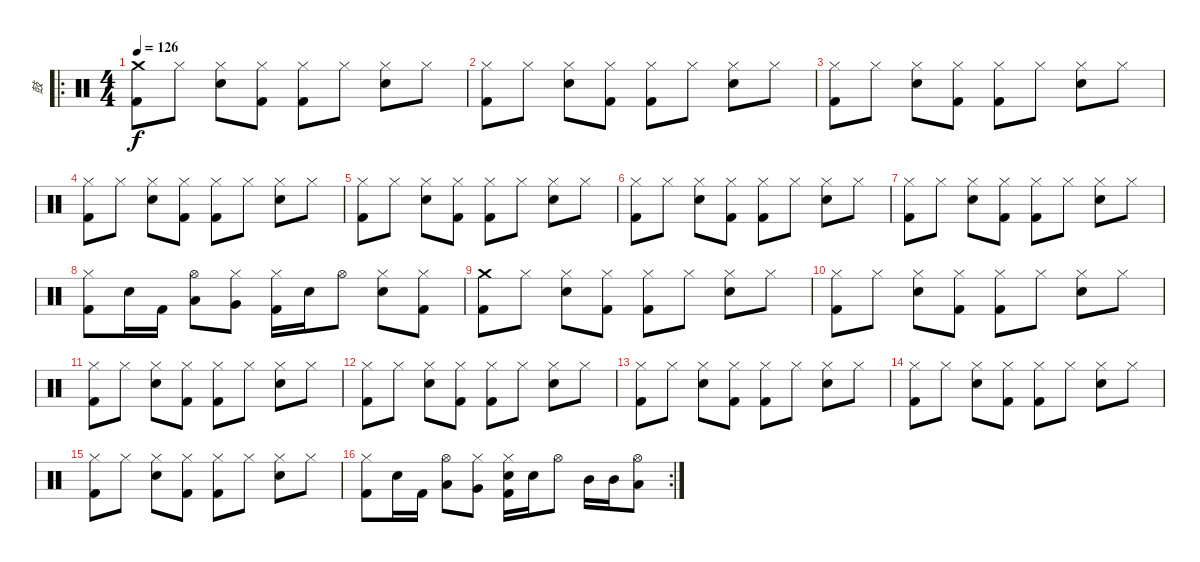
\track ("鼓" "鼓") {instrument percussion}
\staff {score}
\articulation defaults
\ro
\ts (4 4)
\tempo 126
\clef neutral
\ks c
("Crash medium (hit)" "Kick (hit) 2").8{dy f} "Hi-Hat (closed)".8 ("Hi-Hat (closed)" "Electric Snare (hit)").8 ("Hi-Hat (closed)" "Kick (hit) 2").8 ("Hi-Hat (closed)" "Kick (hit) 2").8 "Hi-Hat (closed)".8 ("Hi-Hat (closed)" "Electric Snare (hit)").8 "Hi-Hat (closed)".8 |
("Hi-Hat (closed)" "Kick (hit) 2").8 "Hi-Hat (closed)".8 ("Hi-Hat (closed)" "Electric Snare (hit)").8 ("Hi-Hat (closed)" "Kick (hit) 2").8 ("Hi-Hat (closed)" "Kick (hit) 2").8 "Hi-Hat (closed)".8 ("Hi-Hat (closed)" "Electric Snare (hit)").8 "Hi-Hat (closed)".8 |
("Hi-Hat (closed)" "Kick (hit) 2").8 "Hi-Hat (closed)".8 ("Hi-Hat (closed)" "Electric Snare (hit)").8 ("Hi-Hat (closed)" "Kick (hit) 2").8 ("Hi-Hat (closed)" "Kick (hit) 2").8 "Hi-Hat (closed)".8 ("Hi-Hat (closed)" "Electric Snare (hit)").8 "Hi-Hat (closed)".8 |
("Hi-Hat (closed)" "Kick (hit) 2").8 "Hi-Hat (closed)".8 ("Hi-Hat (closed)" "Electric Snare (hit)").8 ("Hi-Hat (closed)" "Kick (hit) 2").8 ("Hi-Hat (closed)" "Kick (hit) 2").8 "Hi-Hat (closed)".8 ("Hi-Hat (closed)" "Electric Snare (hit)").8 "Hi-Hat (closed)".8 |
("Hi-Hat (closed)" "Kick (hit) 2").8 "Hi-Hat (closed)".8 ("Hi-Hat (closed)" "Electric Snare (hit)").8 ("Hi-Hat (closed)" "Kick (hit) 2").8 ("Hi-Hat (closed)" "Kick (hit) 2").8 "Hi-Hat (closed)".8 ("Hi-Hat (closed)" "Electric Snare (hit)").8 "Hi-Hat (closed)".8 |
("Hi-Hat (closed)" "Kick (hit) 2").8 "Hi-Hat (closed)".8 ("Hi-Hat (closed)" "Electric Snare (hit)").8 ("Hi-Hat (closed)" "Kick (hit) 2").8 ("Hi-Hat (closed)" "Kick (hit) 2").8 "Hi-Hat (closed)".8 ("Hi-Hat (closed)" "Electric Snare (hit)").8 "Hi-Hat (closed)".8 |
("Hi-Hat (closed)" "Kick (hit) 2").8 "Hi-Hat (closed)".8 ("Hi-Hat (closed)" "Electric Snare (hit)").8 ("Hi-Hat (closed)" "Kick (hit) 2").8 ("Hi-Hat (closed)" "Kick (hit) 2").8 "Hi-Hat (closed)".8 ("Hi-Hat (closed)" "Electric Snare (hit)").8 "Hi-Hat (closed)".8 |
("Hi-Hat (closed)" "Kick (hit) 2").8 "Electric Snare (hit)".16 "Kick (hit) 2".16 ("Hi-Hat (open)" "Low Tom (hit)").8 ("Hi-Hat (closed)" "Very Low Tom (hit)").8 ("Hi-Hat (closed)" "Kick (hit) 2").16 "Electric Snare (hit)".16 "Hi-Hat (open)".8 ("Hi-Hat (closed)" "Electric Snare (hit)").8 ("Hi-Hat (closed)" "Kick (hit) 2").8 |
("Crash medium (hit)" "Kick (hit) 2").8 "Hi-Hat (closed)".8 ("Hi-Hat (closed)" "Electric Snare (hit)").8 ("Hi-Hat (closed)" "Kick (hit) 2").8 ("Hi-Hat (closed)" "Kick (hit) 2").8 "Hi-Hat (closed)".8 ("Hi-Hat (closed)" "Electric Snare (hit)").8 "Hi-Hat (closed)".8 |
("Hi-Hat (closed)" "Kick (hit) 2").8 "Hi-Hat (closed)".8 ("Hi-Hat (closed)" "Electric Snare (hit)").8 ("Hi-Hat (closed)" "Kick (hit) 2").8 ("Hi-Hat (closed)" "Kick (hit) 2").8 "Hi-Hat (closed)".8 ("Hi-Hat (closed)" "Electric Snare (hit)").8 "Hi-Hat (closed)".8 |
("Hi-Hat (closed)" "Kick (hit) 2").8 "Hi-Hat (closed)".8 ("Hi-Hat (closed)" "Electric Snare (hit)").8 ("Hi-Hat (closed)" "Kick (hit) 2").8 ("Hi-Hat (closed)" "Kick (hit) 2").8 "Hi-Hat (closed)".8 ("Hi-Hat (closed)" "Electric Snare (hit)").8 "Hi-Hat (closed)".8 |
("Hi-Hat (closed)" "Kick (hit) 2").8 "Hi-Hat (closed)".8 ("Hi-Hat (closed)" "Electric Snare (hit)").8 ("Hi-Hat (closed)" "Kick (hit) 2").8 ("Hi-Hat (closed)" "Kick (hit) 2").8 "Hi-Hat (closed)".8 ("Hi-Hat (closed)" "Electric Snare (hit)").8 "Hi-Hat (closed)".8 |
("Hi-Hat (closed)" "Kick (hit) 2").8 "Hi-Hat (closed)".8 ("Hi-Hat (closed)" "Electric Snare (hit)").8 ("Hi-Hat (closed)" "Kick (hit) 2").8 ("Hi-Hat (closed)" "Kick (hit) 2").8 "Hi-Hat (closed)".8 ("Hi-Hat (closed)" "Electric Snare (hit)").8 "Hi-Hat (closed)".8 |
("Hi-Hat (closed)" "Kick (hit) 2").8 "Hi-Hat (closed)".8 ("Hi-Hat (closed)" "Electric Snare (hit)").8 ("Hi-Hat (closed)" "Kick (hit) 2").8 ("Hi-Hat (closed)" "Kick (hit) 2").8 "Hi-Hat (closed)".8 ("Hi-Hat (closed)" "Electric Snare (hit)").8 "Hi-Hat (closed)".8 |
("Hi-Hat (closed)" "Kick (hit) 2").8 "Hi-Hat (closed)".8 ("Hi-Hat (closed)" "Electric Snare (hit)").8 ("Hi-Hat (closed)" "Kick (hit) 2").8 ("Hi-Hat (closed)" "Kick (hit) 2").8 "Hi-Hat (closed)".8 ("Hi-Hat (closed)" "Electric Snare (hit)").8 "Hi-Hat (closed)".8 |
\rc 2
("Hi-Hat (closed)" "Kick (hit) 2").8 "Electric Snare (hit)".16 "Kick (hit) 2".16 ("Hi-Hat (open)" "Low Tom (hit)").8 ("Hi-Hat (closed)" "Very Low Tom (hit)").8 ("Hi-Hat (closed)" "Electric Snare (hit)" "Kick (hit) 2").16 "Electric Snare (hit)".16 "Hi-Hat (open)".8 "Mid Tom (hit)".16 "Mid Tom (hit)".16 ("Hi-Hat (open)" "Low Tom (hit)").8
